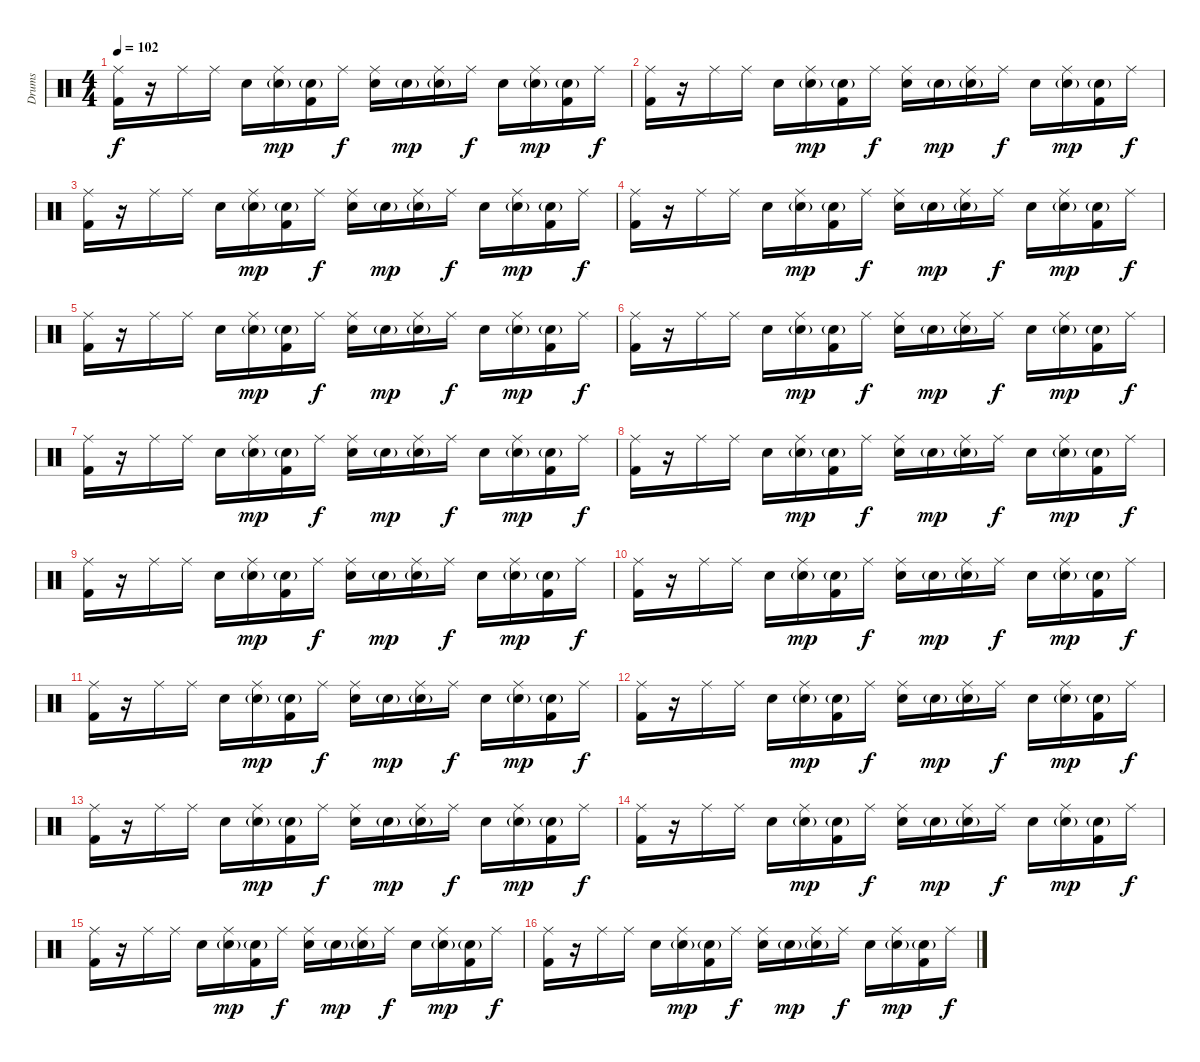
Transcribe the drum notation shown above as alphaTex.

\track ("Drums" "Drums") {instrument percussion}
\staff {score}
\articulation defaults
\ts (4 4)
\tempo 102
\clef neutral
\ks c
("Ride (middle)" "Kick (hit) 2").16{dy f} r.16 "Ride (middle)".16 "Ride (middle)".16 "Electric Snare (hit)".16 ("Ride (middle)" "Electric Snare (hit)"{g}).16{dy mp} ("Electric Snare (hit)"{g} "Kick (hit) 2").16 "Ride (middle)".16{dy f} ("Ride (middle)" "Electric Snare (hit)").16 "Electric Snare (hit)"{g}.16{dy mp} ("Ride (middle)" "Electric Snare (hit)"{g}).16 "Ride (middle)".16{dy f} "Electric Snare (hit)".16 ("Ride (middle)" "Electric Snare (hit)"{g}).16{dy mp} ("Electric Snare (hit)"{g} "Kick (hit) 2").16 "Ride (middle)".16{dy f} |
("Ride (middle)" "Kick (hit) 2").16 r.16 "Ride (middle)".16 "Ride (middle)".16 "Electric Snare (hit)".16 ("Ride (middle)" "Electric Snare (hit)"{g}).16{dy mp} ("Electric Snare (hit)"{g} "Kick (hit) 2").16 "Ride (middle)".16{dy f} ("Ride (middle)" "Electric Snare (hit)").16 "Electric Snare (hit)"{g}.16{dy mp} ("Ride (middle)" "Electric Snare (hit)"{g}).16 "Ride (middle)".16{dy f} "Electric Snare (hit)".16 ("Ride (middle)" "Electric Snare (hit)"{g}).16{dy mp} ("Electric Snare (hit)"{g} "Kick (hit) 2").16 "Ride (middle)".16{dy f} |
("Ride (middle)" "Kick (hit) 2").16 r.16 "Ride (middle)".16 "Ride (middle)".16 "Electric Snare (hit)".16 ("Ride (middle)" "Electric Snare (hit)"{g}).16{dy mp} ("Electric Snare (hit)"{g} "Kick (hit) 2").16 "Ride (middle)".16{dy f} ("Ride (middle)" "Electric Snare (hit)").16 "Electric Snare (hit)"{g}.16{dy mp} ("Ride (middle)" "Electric Snare (hit)"{g}).16 "Ride (middle)".16{dy f} "Electric Snare (hit)".16 ("Ride (middle)" "Electric Snare (hit)"{g}).16{dy mp} ("Electric Snare (hit)"{g} "Kick (hit) 2").16 "Ride (middle)".16{dy f} |
("Ride (middle)" "Kick (hit) 2").16 r.16 "Ride (middle)".16 "Ride (middle)".16 "Electric Snare (hit)".16 ("Ride (middle)" "Electric Snare (hit)"{g}).16{dy mp} ("Electric Snare (hit)"{g} "Kick (hit) 2").16 "Ride (middle)".16{dy f} ("Ride (middle)" "Electric Snare (hit)").16 "Electric Snare (hit)"{g}.16{dy mp} ("Ride (middle)" "Electric Snare (hit)"{g}).16 "Ride (middle)".16{dy f} "Electric Snare (hit)".16 ("Ride (middle)" "Electric Snare (hit)"{g}).16{dy mp} ("Electric Snare (hit)"{g} "Kick (hit) 2").16 "Ride (middle)".16{dy f} |
("Ride (middle)" "Kick (hit) 2").16 r.16 "Ride (middle)".16 "Ride (middle)".16 "Electric Snare (hit)".16 ("Ride (middle)" "Electric Snare (hit)"{g}).16{dy mp} ("Electric Snare (hit)"{g} "Kick (hit) 2").16 "Ride (middle)".16{dy f} ("Ride (middle)" "Electric Snare (hit)").16 "Electric Snare (hit)"{g}.16{dy mp} ("Ride (middle)" "Electric Snare (hit)"{g}).16 "Ride (middle)".16{dy f} "Electric Snare (hit)".16 ("Ride (middle)" "Electric Snare (hit)"{g}).16{dy mp} ("Electric Snare (hit)"{g} "Kick (hit) 2").16 "Ride (middle)".16{dy f} |
("Ride (middle)" "Kick (hit) 2").16 r.16 "Ride (middle)".16 "Ride (middle)".16 "Electric Snare (hit)".16 ("Ride (middle)" "Electric Snare (hit)"{g}).16{dy mp} ("Electric Snare (hit)"{g} "Kick (hit) 2").16 "Ride (middle)".16{dy f} ("Ride (middle)" "Electric Snare (hit)").16 "Electric Snare (hit)"{g}.16{dy mp} ("Ride (middle)" "Electric Snare (hit)"{g}).16 "Ride (middle)".16{dy f} "Electric Snare (hit)".16 ("Ride (middle)" "Electric Snare (hit)"{g}).16{dy mp} ("Electric Snare (hit)"{g} "Kick (hit) 2").16 "Ride (middle)".16{dy f} |
("Ride (middle)" "Kick (hit) 2").16 r.16 "Ride (middle)".16 "Ride (middle)".16 "Electric Snare (hit)".16 ("Ride (middle)" "Electric Snare (hit)"{g}).16{dy mp} ("Electric Snare (hit)"{g} "Kick (hit) 2").16 "Ride (middle)".16{dy f} ("Ride (middle)" "Electric Snare (hit)").16 "Electric Snare (hit)"{g}.16{dy mp} ("Ride (middle)" "Electric Snare (hit)"{g}).16 "Ride (middle)".16{dy f} "Electric Snare (hit)".16 ("Ride (middle)" "Electric Snare (hit)"{g}).16{dy mp} ("Electric Snare (hit)"{g} "Kick (hit) 2").16 "Ride (middle)".16{dy f} |
("Ride (middle)" "Kick (hit) 2").16 r.16 "Ride (middle)".16 "Ride (middle)".16 "Electric Snare (hit)".16 ("Ride (middle)" "Electric Snare (hit)"{g}).16{dy mp} ("Electric Snare (hit)"{g} "Kick (hit) 2").16 "Ride (middle)".16{dy f} ("Ride (middle)" "Electric Snare (hit)").16 "Electric Snare (hit)"{g}.16{dy mp} ("Ride (middle)" "Electric Snare (hit)"{g}).16 "Ride (middle)".16{dy f} "Electric Snare (hit)".16 ("Ride (middle)" "Electric Snare (hit)"{g}).16{dy mp} ("Electric Snare (hit)"{g} "Kick (hit) 2").16 "Ride (middle)".16{dy f} |
("Ride (middle)" "Kick (hit) 2").16 r.16 "Ride (middle)".16 "Ride (middle)".16 "Electric Snare (hit)".16 ("Ride (middle)" "Electric Snare (hit)"{g}).16{dy mp} ("Electric Snare (hit)"{g} "Kick (hit) 2").16 "Ride (middle)".16{dy f} ("Ride (middle)" "Electric Snare (hit)").16 "Electric Snare (hit)"{g}.16{dy mp} ("Ride (middle)" "Electric Snare (hit)"{g}).16 "Ride (middle)".16{dy f} "Electric Snare (hit)".16 ("Ride (middle)" "Electric Snare (hit)"{g}).16{dy mp} ("Electric Snare (hit)"{g} "Kick (hit) 2").16 "Ride (middle)".16{dy f} |
("Ride (middle)" "Kick (hit) 2").16 r.16 "Ride (middle)".16 "Ride (middle)".16 "Electric Snare (hit)".16 ("Ride (middle)" "Electric Snare (hit)"{g}).16{dy mp} ("Electric Snare (hit)"{g} "Kick (hit) 2").16 "Ride (middle)".16{dy f} ("Ride (middle)" "Electric Snare (hit)").16 "Electric Snare (hit)"{g}.16{dy mp} ("Ride (middle)" "Electric Snare (hit)"{g}).16 "Ride (middle)".16{dy f} "Electric Snare (hit)".16 ("Ride (middle)" "Electric Snare (hit)"{g}).16{dy mp} ("Electric Snare (hit)"{g} "Kick (hit) 2").16 "Ride (middle)".16{dy f} |
("Ride (middle)" "Kick (hit) 2").16 r.16 "Ride (middle)".16 "Ride (middle)".16 "Electric Snare (hit)".16 ("Ride (middle)" "Electric Snare (hit)"{g}).16{dy mp} ("Electric Snare (hit)"{g} "Kick (hit) 2").16 "Ride (middle)".16{dy f} ("Ride (middle)" "Electric Snare (hit)").16 "Electric Snare (hit)"{g}.16{dy mp} ("Ride (middle)" "Electric Snare (hit)"{g}).16 "Ride (middle)".16{dy f} "Electric Snare (hit)".16 ("Ride (middle)" "Electric Snare (hit)"{g}).16{dy mp} ("Electric Snare (hit)"{g} "Kick (hit) 2").16 "Ride (middle)".16{dy f} |
("Ride (middle)" "Kick (hit) 2").16 r.16 "Ride (middle)".16 "Ride (middle)".16 "Electric Snare (hit)".16 ("Ride (middle)" "Electric Snare (hit)"{g}).16{dy mp} ("Electric Snare (hit)"{g} "Kick (hit) 2").16 "Ride (middle)".16{dy f} ("Ride (middle)" "Electric Snare (hit)").16 "Electric Snare (hit)"{g}.16{dy mp} ("Ride (middle)" "Electric Snare (hit)"{g}).16 "Ride (middle)".16{dy f} "Electric Snare (hit)".16 ("Ride (middle)" "Electric Snare (hit)"{g}).16{dy mp} ("Electric Snare (hit)"{g} "Kick (hit) 2").16 "Ride (middle)".16{dy f} |
("Ride (middle)" "Kick (hit) 2").16 r.16 "Ride (middle)".16 "Ride (middle)".16 "Electric Snare (hit)".16 ("Ride (middle)" "Electric Snare (hit)"{g}).16{dy mp} ("Electric Snare (hit)"{g} "Kick (hit) 2").16 "Ride (middle)".16{dy f} ("Ride (middle)" "Electric Snare (hit)").16 "Electric Snare (hit)"{g}.16{dy mp} ("Ride (middle)" "Electric Snare (hit)"{g}).16 "Ride (middle)".16{dy f} "Electric Snare (hit)".16 ("Ride (middle)" "Electric Snare (hit)"{g}).16{dy mp} ("Electric Snare (hit)"{g} "Kick (hit) 2").16 "Ride (middle)".16{dy f} |
("Ride (middle)" "Kick (hit) 2").16 r.16 "Ride (middle)".16 "Ride (middle)".16 "Electric Snare (hit)".16 ("Ride (middle)" "Electric Snare (hit)"{g}).16{dy mp} ("Electric Snare (hit)"{g} "Kick (hit) 2").16 "Ride (middle)".16{dy f} ("Ride (middle)" "Electric Snare (hit)").16 "Electric Snare (hit)"{g}.16{dy mp} ("Ride (middle)" "Electric Snare (hit)"{g}).16 "Ride (middle)".16{dy f} "Electric Snare (hit)".16 ("Ride (middle)" "Electric Snare (hit)"{g}).16{dy mp} ("Electric Snare (hit)"{g} "Kick (hit) 2").16 "Ride (middle)".16{dy f} |
("Ride (middle)" "Kick (hit) 2").16 r.16 "Ride (middle)".16 "Ride (middle)".16 "Electric Snare (hit)".16 ("Ride (middle)" "Electric Snare (hit)"{g}).16{dy mp} ("Electric Snare (hit)"{g} "Kick (hit) 2").16 "Ride (middle)".16{dy f} ("Ride (middle)" "Electric Snare (hit)").16 "Electric Snare (hit)"{g}.16{dy mp} ("Ride (middle)" "Electric Snare (hit)"{g}).16 "Ride (middle)".16{dy f} "Electric Snare (hit)".16 ("Ride (middle)" "Electric Snare (hit)"{g}).16{dy mp} ("Electric Snare (hit)"{g} "Kick (hit) 2").16 "Ride (middle)".16{dy f} |
("Ride (middle)" "Kick (hit) 2").16 r.16 "Ride (middle)".16 "Ride (middle)".16 "Electric Snare (hit)".16 ("Ride (middle)" "Electric Snare (hit)"{g}).16{dy mp} ("Electric Snare (hit)"{g} "Kick (hit) 2").16 "Ride (middle)".16{dy f} ("Ride (middle)" "Electric Snare (hit)").16 "Electric Snare (hit)"{g}.16{dy mp} ("Ride (middle)" "Electric Snare (hit)"{g}).16 "Ride (middle)".16{dy f} "Electric Snare (hit)".16 ("Ride (middle)" "Electric Snare (hit)"{g}).16{dy mp} ("Electric Snare (hit)"{g} "Kick (hit) 2").16 "Ride (middle)".16{dy f}
